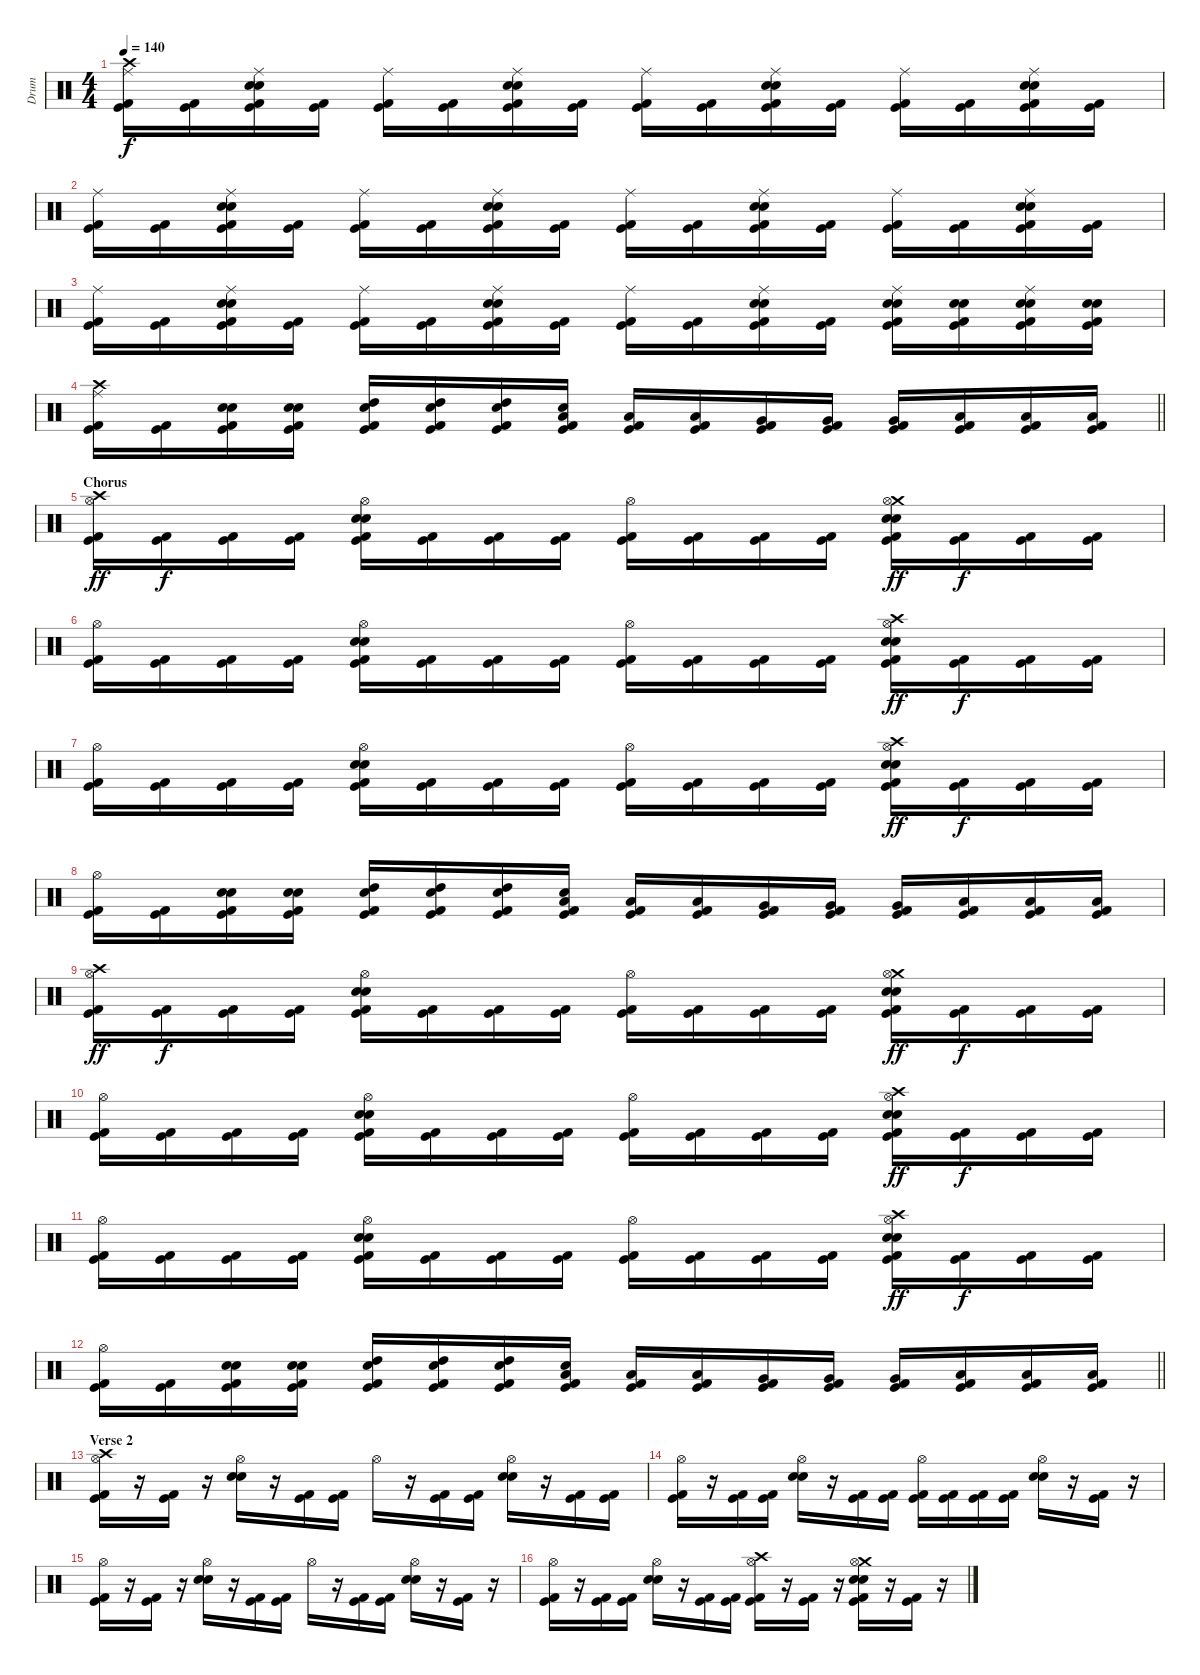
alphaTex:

\track ("Drum" "Drum") {instrument percussion}
\staff {score}
\articulation defaults
\ts (4 4)
\tempo 140
\clef neutral
\ks c
("Crash high (hit)" "Ride (middle)" "Kick (hit)" "Kick (hit) 2").16{dy f} ("Kick (hit)" "Kick (hit) 2").16 ("Ride (middle)" "Snare (hit) 2" "Electric Snare (hit)" "Kick (hit)" "Kick (hit) 2").16 ("Kick (hit)" "Kick (hit) 2").16 ("Ride (middle)" "Kick (hit)" "Kick (hit) 2").16 ("Kick (hit)" "Kick (hit) 2").16 ("Ride (middle)" "Snare (hit) 2" "Electric Snare (hit)" "Kick (hit)" "Kick (hit) 2").16 ("Kick (hit)" "Kick (hit) 2").16 ("Ride (middle)" "Kick (hit)" "Kick (hit) 2").16 ("Kick (hit)" "Kick (hit) 2").16 ("Ride (middle)" "Snare (hit) 2" "Electric Snare (hit)" "Kick (hit)" "Kick (hit) 2").16 ("Kick (hit)" "Kick (hit) 2").16 ("Ride (middle)" "Kick (hit)" "Kick (hit) 2").16 ("Kick (hit)" "Kick (hit) 2").16 ("Ride (middle)" "Snare (hit) 2" "Electric Snare (hit)" "Kick (hit)" "Kick (hit) 2").16 ("Kick (hit)" "Kick (hit) 2").16 |
("Ride (middle)" "Kick (hit)" "Kick (hit) 2").16 ("Kick (hit)" "Kick (hit) 2").16 ("Ride (middle)" "Snare (hit) 2" "Electric Snare (hit)" "Kick (hit)" "Kick (hit) 2").16 ("Kick (hit)" "Kick (hit) 2").16 ("Ride (middle)" "Kick (hit)" "Kick (hit) 2").16 ("Kick (hit)" "Kick (hit) 2").16 ("Ride (middle)" "Snare (hit) 2" "Electric Snare (hit)" "Kick (hit)" "Kick (hit) 2").16 ("Kick (hit)" "Kick (hit) 2").16 ("Ride (middle)" "Kick (hit)" "Kick (hit) 2").16 ("Kick (hit)" "Kick (hit) 2").16 ("Ride (middle)" "Snare (hit) 2" "Electric Snare (hit)" "Kick (hit)" "Kick (hit) 2").16 ("Kick (hit)" "Kick (hit) 2").16 ("Ride (middle)" "Kick (hit)" "Kick (hit) 2").16 ("Kick (hit)" "Kick (hit) 2").16 ("Ride (middle)" "Snare (hit) 2" "Electric Snare (hit)" "Kick (hit)" "Kick (hit) 2").16 ("Kick (hit)" "Kick (hit) 2").16 |
("Ride (middle)" "Kick (hit)" "Kick (hit) 2").16 ("Kick (hit)" "Kick (hit) 2").16 ("Ride (middle)" "Snare (hit) 2" "Electric Snare (hit)" "Kick (hit)" "Kick (hit) 2").16 ("Kick (hit)" "Kick (hit) 2").16 ("Ride (middle)" "Kick (hit)" "Kick (hit) 2").16 ("Kick (hit)" "Kick (hit) 2").16 ("Ride (middle)" "Snare (hit) 2" "Electric Snare (hit)" "Kick (hit)" "Kick (hit) 2").16 ("Kick (hit)" "Kick (hit) 2").16 ("Ride (middle)" "Kick (hit)" "Kick (hit) 2").16 ("Kick (hit)" "Kick (hit) 2").16 ("Ride (middle)" "Snare (hit) 2" "Electric Snare (hit)" "Kick (hit)" "Kick (hit) 2").16 ("Kick (hit)" "Kick (hit) 2").16 ("Ride (middle)" "Snare (hit) 2" "Electric Snare (hit)" "Kick (hit)" "Kick (hit) 2").16 ("Snare (hit) 2" "Electric Snare (hit)" "Kick (hit)" "Kick (hit) 2").16 ("Ride (middle)" "Snare (hit) 2" "Electric Snare (hit)" "Kick (hit)" "Kick (hit) 2").16 ("Snare (hit) 2" "Electric Snare (hit)" "Kick (hit)" "Kick (hit) 2").16 |
\barLineRight lightlight
("Crash high (hit)" "Ride (middle)" "Kick (hit)" "Kick (hit) 2").16 ("Kick (hit)" "Kick (hit) 2").16 ("Snare (hit) 2" "Electric Snare (hit)" "Kick (hit)" "Kick (hit) 2").16 ("Snare (hit) 2" "Electric Snare (hit)" "Kick (hit)" "Kick (hit) 2").16 ("High Tom (hit)" "Electric Snare (hit)" "Kick (hit)" "Kick (hit) 2").16 ("High Tom (hit)" "Electric Snare (hit)" "Kick (hit)" "Kick (hit) 2").16 ("High Tom (hit)" "Electric Snare (hit)" "Kick (hit)" "Kick (hit) 2").16 ("Low Tom (hit)" "Electric Snare (hit)" "Kick (hit)" "Kick (hit) 2").16 ("Low Tom (hit)" "Kick (hit)" "Kick (hit) 2").16 ("Low Tom (hit)" "Kick (hit)" "Kick (hit) 2").16 ("Very Low Tom (hit)" "Kick (hit)" "Kick (hit) 2").16 ("Very Low Tom (hit)" "Kick (hit)" "Kick (hit) 2").16 ("Very Low Tom (hit)" "Kick (hit)" "Kick (hit) 2").16 ("Low Floor Tom (hit)" "Kick (hit)" "Kick (hit) 2").16 ("Low Floor Tom (hit)" "Kick (hit)" "Kick (hit) 2").16 ("Low Floor Tom (hit)" "Kick (hit)" "Kick (hit) 2").16 |
\section ("" "Chorus")
("Crash high (hit)" "Hi-Hat (open)" "Kick (hit)" "Kick (hit) 2").16{dy ff} ("Kick (hit)" "Kick (hit) 2").16{dy f} ("Kick (hit)" "Kick (hit) 2").16 ("Kick (hit)" "Kick (hit) 2").16 ("Hi-Hat (open)" "Snare (hit) 2" "Electric Snare (hit)" "Kick (hit)" "Kick (hit) 2").16 ("Kick (hit)" "Kick (hit) 2").16 ("Kick (hit)" "Kick (hit) 2").16 ("Kick (hit)" "Kick (hit) 2").16 ("Hi-Hat (open)" "Kick (hit)" "Kick (hit) 2").16 ("Kick (hit)" "Kick (hit) 2").16 ("Kick (hit)" "Kick (hit) 2").16 ("Kick (hit)" "Kick (hit) 2").16 ("Crash medium (hit)" "Hi-Hat (open)" "Snare (hit) 2" "Electric Snare (hit)" "Kick (hit)" "Kick (hit) 2").16{dy ff} ("Kick (hit)" "Kick (hit) 2").16{dy f} ("Kick (hit)" "Kick (hit) 2").16 ("Kick (hit)" "Kick (hit) 2").16 |
("Hi-Hat (open)" "Kick (hit)" "Kick (hit) 2").16 ("Kick (hit)" "Kick (hit) 2").16 ("Kick (hit)" "Kick (hit) 2").16 ("Kick (hit)" "Kick (hit) 2").16 ("Hi-Hat (open)" "Snare (hit) 2" "Electric Snare (hit)" "Kick (hit)" "Kick (hit) 2").16 ("Kick (hit)" "Kick (hit) 2").16 ("Kick (hit)" "Kick (hit) 2").16 ("Kick (hit)" "Kick (hit) 2").16 ("Hi-Hat (open)" "Kick (hit)" "Kick (hit) 2").16 ("Kick (hit)" "Kick (hit) 2").16 ("Kick (hit)" "Kick (hit) 2").16 ("Kick (hit)" "Kick (hit) 2").16 ("Crash high (hit)" "Hi-Hat (open)" "Snare (hit) 2" "Electric Snare (hit)" "Kick (hit)" "Kick (hit) 2").16{dy ff} ("Kick (hit)" "Kick (hit) 2").16{dy f} ("Kick (hit)" "Kick (hit) 2").16 ("Kick (hit)" "Kick (hit) 2").16 |
("Hi-Hat (open)" "Kick (hit)" "Kick (hit) 2").16 ("Kick (hit)" "Kick (hit) 2").16 ("Kick (hit)" "Kick (hit) 2").16 ("Kick (hit)" "Kick (hit) 2").16 ("Hi-Hat (open)" "Snare (hit) 2" "Electric Snare (hit)" "Kick (hit)" "Kick (hit) 2").16 ("Kick (hit)" "Kick (hit) 2").16 ("Kick (hit)" "Kick (hit) 2").16 ("Kick (hit)" "Kick (hit) 2").16 ("Hi-Hat (open)" "Kick (hit)" "Kick (hit) 2").16 ("Kick (hit)" "Kick (hit) 2").16 ("Kick (hit)" "Kick (hit) 2").16 ("Kick (hit)" "Kick (hit) 2").16 ("Crash high (hit)" "Hi-Hat (open)" "Snare (hit) 2" "Electric Snare (hit)" "Kick (hit)" "Kick (hit) 2").16{dy ff} ("Kick (hit)" "Kick (hit) 2").16{dy f} ("Kick (hit)" "Kick (hit) 2").16 ("Kick (hit)" "Kick (hit) 2").16 |
("Hi-Hat (open)" "Kick (hit)" "Kick (hit) 2").16 ("Kick (hit)" "Kick (hit) 2").16 ("Snare (hit) 2" "Electric Snare (hit)" "Kick (hit)" "Kick (hit) 2").16 ("Snare (hit) 2" "Electric Snare (hit)" "Kick (hit)" "Kick (hit) 2").16 ("High Tom (hit)" "Electric Snare (hit)" "Kick (hit)" "Kick (hit) 2").16 ("High Tom (hit)" "Electric Snare (hit)" "Kick (hit)" "Kick (hit) 2").16 ("High Tom (hit)" "Electric Snare (hit)" "Kick (hit)" "Kick (hit) 2").16 ("Low Tom (hit)" "Electric Snare (hit)" "Kick (hit)" "Kick (hit) 2").16 ("Low Tom (hit)" "Kick (hit)" "Kick (hit) 2").16 ("Low Tom (hit)" "Kick (hit)" "Kick (hit) 2").16 ("Very Low Tom (hit)" "Kick (hit)" "Kick (hit) 2").16 ("Very Low Tom (hit)" "Kick (hit)" "Kick (hit) 2").16 ("Very Low Tom (hit)" "Kick (hit)" "Kick (hit) 2").16 ("Low Floor Tom (hit)" "Kick (hit)" "Kick (hit) 2").16 ("Low Floor Tom (hit)" "Kick (hit)" "Kick (hit) 2").16 ("Low Floor Tom (hit)" "Kick (hit)" "Kick (hit) 2").16 |
("Crash high (hit)" "Hi-Hat (open)" "Kick (hit)" "Kick (hit) 2").16{dy ff} ("Kick (hit)" "Kick (hit) 2").16{dy f} ("Kick (hit)" "Kick (hit) 2").16 ("Kick (hit)" "Kick (hit) 2").16 ("Hi-Hat (open)" "Snare (hit) 2" "Electric Snare (hit)" "Kick (hit)" "Kick (hit) 2").16 ("Kick (hit)" "Kick (hit) 2").16 ("Kick (hit)" "Kick (hit) 2").16 ("Kick (hit)" "Kick (hit) 2").16 ("Hi-Hat (open)" "Kick (hit)" "Kick (hit) 2").16 ("Kick (hit)" "Kick (hit) 2").16 ("Kick (hit)" "Kick (hit) 2").16 ("Kick (hit)" "Kick (hit) 2").16 ("Crash medium (hit)" "Hi-Hat (open)" "Snare (hit) 2" "Electric Snare (hit)" "Kick (hit)" "Kick (hit) 2").16{dy ff} ("Kick (hit)" "Kick (hit) 2").16{dy f} ("Kick (hit)" "Kick (hit) 2").16 ("Kick (hit)" "Kick (hit) 2").16 |
("Hi-Hat (open)" "Kick (hit)" "Kick (hit) 2").16 ("Kick (hit)" "Kick (hit) 2").16 ("Kick (hit)" "Kick (hit) 2").16 ("Kick (hit)" "Kick (hit) 2").16 ("Hi-Hat (open)" "Snare (hit) 2" "Electric Snare (hit)" "Kick (hit)" "Kick (hit) 2").16 ("Kick (hit)" "Kick (hit) 2").16 ("Kick (hit)" "Kick (hit) 2").16 ("Kick (hit)" "Kick (hit) 2").16 ("Hi-Hat (open)" "Kick (hit)" "Kick (hit) 2").16 ("Kick (hit)" "Kick (hit) 2").16 ("Kick (hit)" "Kick (hit) 2").16 ("Kick (hit)" "Kick (hit) 2").16 ("Crash high (hit)" "Hi-Hat (open)" "Snare (hit) 2" "Electric Snare (hit)" "Kick (hit)" "Kick (hit) 2").16{dy ff} ("Kick (hit)" "Kick (hit) 2").16{dy f} ("Kick (hit)" "Kick (hit) 2").16 ("Kick (hit)" "Kick (hit) 2").16 |
("Hi-Hat (open)" "Kick (hit)" "Kick (hit) 2").16 ("Kick (hit)" "Kick (hit) 2").16 ("Kick (hit)" "Kick (hit) 2").16 ("Kick (hit)" "Kick (hit) 2").16 ("Hi-Hat (open)" "Snare (hit) 2" "Electric Snare (hit)" "Kick (hit)" "Kick (hit) 2").16 ("Kick (hit)" "Kick (hit) 2").16 ("Kick (hit)" "Kick (hit) 2").16 ("Kick (hit)" "Kick (hit) 2").16 ("Hi-Hat (open)" "Kick (hit)" "Kick (hit) 2").16 ("Kick (hit)" "Kick (hit) 2").16 ("Kick (hit)" "Kick (hit) 2").16 ("Kick (hit)" "Kick (hit) 2").16 ("Crash high (hit)" "Hi-Hat (open)" "Snare (hit) 2" "Electric Snare (hit)" "Kick (hit)" "Kick (hit) 2").16{dy ff} ("Kick (hit)" "Kick (hit) 2").16{dy f} ("Kick (hit)" "Kick (hit) 2").16 ("Kick (hit)" "Kick (hit) 2").16 |
\barLineRight lightlight
("Hi-Hat (open)" "Kick (hit)" "Kick (hit) 2").16 ("Kick (hit)" "Kick (hit) 2").16 ("Snare (hit) 2" "Electric Snare (hit)" "Kick (hit)" "Kick (hit) 2").16 ("Snare (hit) 2" "Electric Snare (hit)" "Kick (hit)" "Kick (hit) 2").16 ("High Tom (hit)" "Electric Snare (hit)" "Kick (hit)" "Kick (hit) 2").16 ("High Tom (hit)" "Electric Snare (hit)" "Kick (hit)" "Kick (hit) 2").16 ("High Tom (hit)" "Electric Snare (hit)" "Kick (hit)" "Kick (hit) 2").16 ("Low Tom (hit)" "Electric Snare (hit)" "Kick (hit)" "Kick (hit) 2").16 ("Low Tom (hit)" "Kick (hit)" "Kick (hit) 2").16 ("Low Tom (hit)" "Kick (hit)" "Kick (hit) 2").16 ("Very Low Tom (hit)" "Kick (hit)" "Kick (hit) 2").16 ("Very Low Tom (hit)" "Kick (hit)" "Kick (hit) 2").16 ("Very Low Tom (hit)" "Kick (hit)" "Kick (hit) 2").16 ("Low Floor Tom (hit)" "Kick (hit)" "Kick (hit) 2").16 ("Low Floor Tom (hit)" "Kick (hit)" "Kick (hit) 2").16 ("Low Floor Tom (hit)" "Kick (hit)" "Kick (hit) 2").16 |
\section ("" "Verse 2")
("Crash high (hit)" "Hi-Hat (open)" "Kick (hit)" "Kick (hit) 2").16 r.16 ("Kick (hit)" "Kick (hit) 2").16 r.16 ("Hi-Hat (open)" "Snare (hit) 2" "Electric Snare (hit)").16 r.16 ("Kick (hit)" "Kick (hit) 2").16 ("Kick (hit)" "Kick (hit) 2").16 "Hi-Hat (open)".16 r.16 ("Kick (hit)" "Kick (hit) 2").16 ("Kick (hit)" "Kick (hit) 2").16 ("Hi-Hat (open)" "Snare (hit) 2" "Electric Snare (hit)").16 r.16 ("Kick (hit)" "Kick (hit) 2").16 ("Kick (hit)" "Kick (hit) 2").16 |
("Hi-Hat (open)" "Kick (hit)" "Kick (hit) 2").16 r.16 ("Kick (hit)" "Kick (hit) 2").16 ("Kick (hit)" "Kick (hit) 2").16 ("Hi-Hat (open)" "Snare (hit) 2" "Electric Snare (hit)").16 r.16 ("Kick (hit)" "Kick (hit) 2").16 ("Kick (hit)" "Kick (hit) 2").16 ("Hi-Hat (open)" "Kick (hit)" "Kick (hit) 2").16 ("Kick (hit)" "Kick (hit) 2").16 ("Kick (hit)" "Kick (hit) 2").16 ("Kick (hit)" "Kick (hit) 2").16 ("Hi-Hat (open)" "Snare (hit) 2" "Electric Snare (hit)").16 r.16 ("Kick (hit)" "Kick (hit) 2").16 r.16 |
("Hi-Hat (open)" "Kick (hit)" "Kick (hit) 2").16 r.16 ("Kick (hit)" "Kick (hit) 2").16 r.16 ("Hi-Hat (open)" "Snare (hit) 2" "Electric Snare (hit)").16 r.16 ("Kick (hit)" "Kick (hit) 2").16 ("Kick (hit)" "Kick (hit) 2").16 "Hi-Hat (open)".16 r.16 ("Kick (hit)" "Kick (hit) 2").16 ("Kick (hit)" "Kick (hit) 2").16 ("Hi-Hat (open)" "Snare (hit) 2" "Electric Snare (hit)").16 r.16 ("Kick (hit)" "Kick (hit) 2").16 r.16 |
("Hi-Hat (open)" "Kick (hit)" "Kick (hit) 2").16 r.16 ("Kick (hit)" "Kick (hit) 2").16 ("Kick (hit)" "Kick (hit) 2").16 ("Hi-Hat (open)" "Snare (hit) 2" "Electric Snare (hit)").16 r.16 ("Kick (hit)" "Kick (hit) 2").16 ("Kick (hit)" "Kick (hit) 2").16 ("Crash high (hit)" "Hi-Hat (open)" "Kick (hit)" "Kick (hit) 2").16 r.16 ("Kick (hit)" "Kick (hit) 2").16 r.16 ("Crash medium (hit)" "Hi-Hat (open)" "Snare (hit) 2" "Electric Snare (hit)" "Kick (hit)" "Kick (hit) 2").16 r.16 ("Kick (hit)" "Kick (hit) 2").16 r.16
